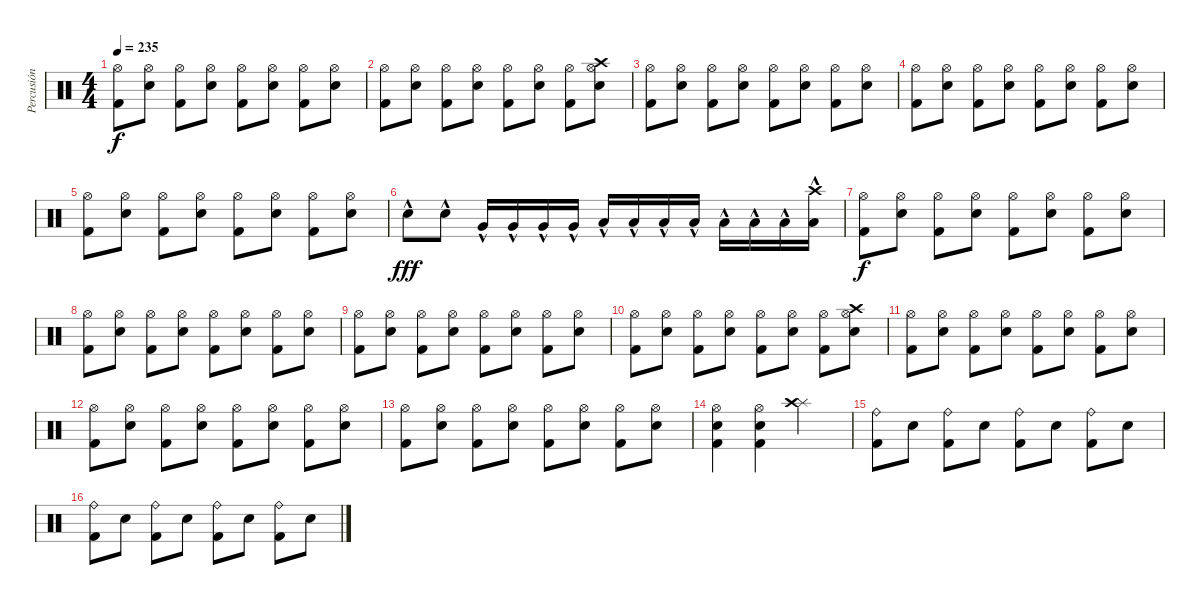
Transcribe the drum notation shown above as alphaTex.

\track ("Percusión" "Percusión") {instrument percussion}
\staff {score}
\articulation defaults
\ts (4 4)
\tempo 235
\clef neutral
\ks c
("Hi-Hat (open)" "Kick (hit) 2").8{dy f} ("Hi-Hat (open)" "Electric Snare (hit)").8 ("Hi-Hat (open)" "Kick (hit) 2").8 ("Hi-Hat (open)" "Electric Snare (hit)").8 ("Hi-Hat (open)" "Kick (hit) 2").8 ("Hi-Hat (open)" "Electric Snare (hit)").8 ("Hi-Hat (open)" "Kick (hit) 2").8 ("Hi-Hat (open)" "Electric Snare (hit)").8 |
("Hi-Hat (open)" "Kick (hit) 2").8 ("Hi-Hat (open)" "Electric Snare (hit)").8 ("Hi-Hat (open)" "Kick (hit) 2").8 ("Hi-Hat (open)" "Electric Snare (hit)").8 ("Hi-Hat (open)" "Kick (hit) 2").8 ("Hi-Hat (open)" "Electric Snare (hit)").8 ("Hi-Hat (open)" "Kick (hit) 2").8 ("Hi-Hat (open)" "Electric Snare (hit)" "Crash high (hit)").8 |
("Hi-Hat (open)" "Kick (hit) 2").8 ("Hi-Hat (open)" "Electric Snare (hit)").8 ("Hi-Hat (open)" "Kick (hit) 2").8 ("Hi-Hat (open)" "Electric Snare (hit)").8 ("Hi-Hat (open)" "Kick (hit) 2").8 ("Hi-Hat (open)" "Electric Snare (hit)").8 ("Hi-Hat (open)" "Kick (hit) 2").8 ("Hi-Hat (open)" "Electric Snare (hit)").8 |
("Hi-Hat (open)" "Kick (hit) 2").8 ("Hi-Hat (open)" "Electric Snare (hit)").8 ("Hi-Hat (open)" "Kick (hit) 2").8 ("Hi-Hat (open)" "Electric Snare (hit)").8 ("Hi-Hat (open)" "Kick (hit) 2").8 ("Hi-Hat (open)" "Electric Snare (hit)").8 ("Hi-Hat (open)" "Kick (hit) 2").8 ("Hi-Hat (open)" "Electric Snare (hit)").8 |
("Hi-Hat (open)" "Kick (hit) 2").8 ("Hi-Hat (open)" "Electric Snare (hit)").8 ("Hi-Hat (open)" "Kick (hit) 2").8 ("Hi-Hat (open)" "Electric Snare (hit)").8 ("Hi-Hat (open)" "Kick (hit) 2").8 ("Hi-Hat (open)" "Electric Snare (hit)").8 ("Hi-Hat (open)" "Kick (hit) 2").8 ("Hi-Hat (open)" "Electric Snare (hit)").8 |
"Electric Snare (hit)"{hac}.8{dy fff} "Electric Snare (hit)"{hac}.8 "Very Low Tom (hit)"{hac}.16 "Very Low Tom (hit)"{hac}.16 "Very Low Tom (hit)"{hac}.16 "Very Low Tom (hit)"{hac}.16 "Low Floor Tom (hit)"{hac}.16 "Low Floor Tom (hit)"{hac}.16 "Low Floor Tom (hit)"{hac}.16 "Low Floor Tom (hit)"{hac}.16 "Low Tom (hit)"{hac}.16 "Low Tom (hit)"{hac}.16 "Low Tom (hit)"{hac}.16 ("Low Tom (hit)"{hac} "Crash high (hit)"{hac}).16 |
("Hi-Hat (open)" "Kick (hit) 2").8{dy f} ("Hi-Hat (open)" "Electric Snare (hit)").8 ("Hi-Hat (open)" "Kick (hit) 2").8 ("Hi-Hat (open)" "Electric Snare (hit)").8 ("Hi-Hat (open)" "Kick (hit) 2").8 ("Hi-Hat (open)" "Electric Snare (hit)").8 ("Hi-Hat (open)" "Kick (hit) 2").8 ("Hi-Hat (open)" "Electric Snare (hit)").8 |
("Hi-Hat (open)" "Kick (hit) 2").8 ("Hi-Hat (open)" "Electric Snare (hit)").8 ("Hi-Hat (open)" "Kick (hit) 2").8 ("Hi-Hat (open)" "Electric Snare (hit)").8 ("Hi-Hat (open)" "Kick (hit) 2").8 ("Hi-Hat (open)" "Electric Snare (hit)").8 ("Hi-Hat (open)" "Kick (hit) 2").8 ("Hi-Hat (open)" "Electric Snare (hit)").8 |
("Hi-Hat (open)" "Kick (hit) 2").8 ("Hi-Hat (open)" "Electric Snare (hit)").8 ("Hi-Hat (open)" "Kick (hit) 2").8 ("Hi-Hat (open)" "Electric Snare (hit)").8 ("Hi-Hat (open)" "Kick (hit) 2").8 ("Hi-Hat (open)" "Electric Snare (hit)").8 ("Hi-Hat (open)" "Kick (hit) 2").8 ("Hi-Hat (open)" "Electric Snare (hit)").8 |
("Hi-Hat (open)" "Kick (hit) 2").8 ("Hi-Hat (open)" "Electric Snare (hit)").8 ("Hi-Hat (open)" "Kick (hit) 2").8 ("Hi-Hat (open)" "Electric Snare (hit)").8 ("Hi-Hat (open)" "Kick (hit) 2").8 ("Hi-Hat (open)" "Electric Snare (hit)").8 ("Hi-Hat (open)" "Kick (hit) 2").8 ("Hi-Hat (open)" "Electric Snare (hit)" "Crash high (hit)").8 |
("Hi-Hat (open)" "Kick (hit) 2").8 ("Hi-Hat (open)" "Electric Snare (hit)").8 ("Hi-Hat (open)" "Kick (hit) 2").8 ("Hi-Hat (open)" "Electric Snare (hit)").8 ("Hi-Hat (open)" "Kick (hit) 2").8 ("Hi-Hat (open)" "Electric Snare (hit)").8 ("Hi-Hat (open)" "Kick (hit) 2").8 ("Hi-Hat (open)" "Electric Snare (hit)").8 |
("Hi-Hat (open)" "Kick (hit) 2").8 ("Hi-Hat (open)" "Electric Snare (hit)").8 ("Hi-Hat (open)" "Kick (hit) 2").8 ("Hi-Hat (open)" "Electric Snare (hit)").8 ("Hi-Hat (open)" "Kick (hit) 2").8 ("Hi-Hat (open)" "Electric Snare (hit)").8 ("Hi-Hat (open)" "Kick (hit) 2").8 ("Hi-Hat (open)" "Electric Snare (hit)").8 |
("Hi-Hat (open)" "Kick (hit) 2").8 ("Hi-Hat (open)" "Electric Snare (hit)").8 ("Hi-Hat (open)" "Kick (hit) 2").8 ("Hi-Hat (open)" "Electric Snare (hit)").8 ("Hi-Hat (open)" "Kick (hit) 2").8 ("Hi-Hat (open)" "Electric Snare (hit)").8 ("Hi-Hat (open)" "Kick (hit) 2").8 ("Hi-Hat (open)" "Electric Snare (hit)").8 |
("Electric Snare (hit)" "Kick (hit) 2" "Hi-Hat (open)").4 ("Electric Snare (hit)" "Kick (hit) 2" "Hi-Hat (open)").4 ("Splash (hit)" "Crash high (hit)").2 |
("Ride (bell)" "Kick (hit) 2").8 "Electric Snare (hit)".8 ("Ride (bell)" "Kick (hit) 2").8 "Electric Snare (hit)".8 ("Ride (bell)" "Kick (hit) 2").8 "Electric Snare (hit)".8 ("Ride (bell)" "Kick (hit) 2").8 "Electric Snare (hit)".8 |
("Ride (bell)" "Kick (hit) 2").8 "Electric Snare (hit)".8 ("Ride (bell)" "Kick (hit) 2").8 "Electric Snare (hit)".8 ("Ride (bell)" "Kick (hit) 2").8 "Electric Snare (hit)".8 ("Ride (bell)" "Kick (hit) 2").8 "Electric Snare (hit)".8
